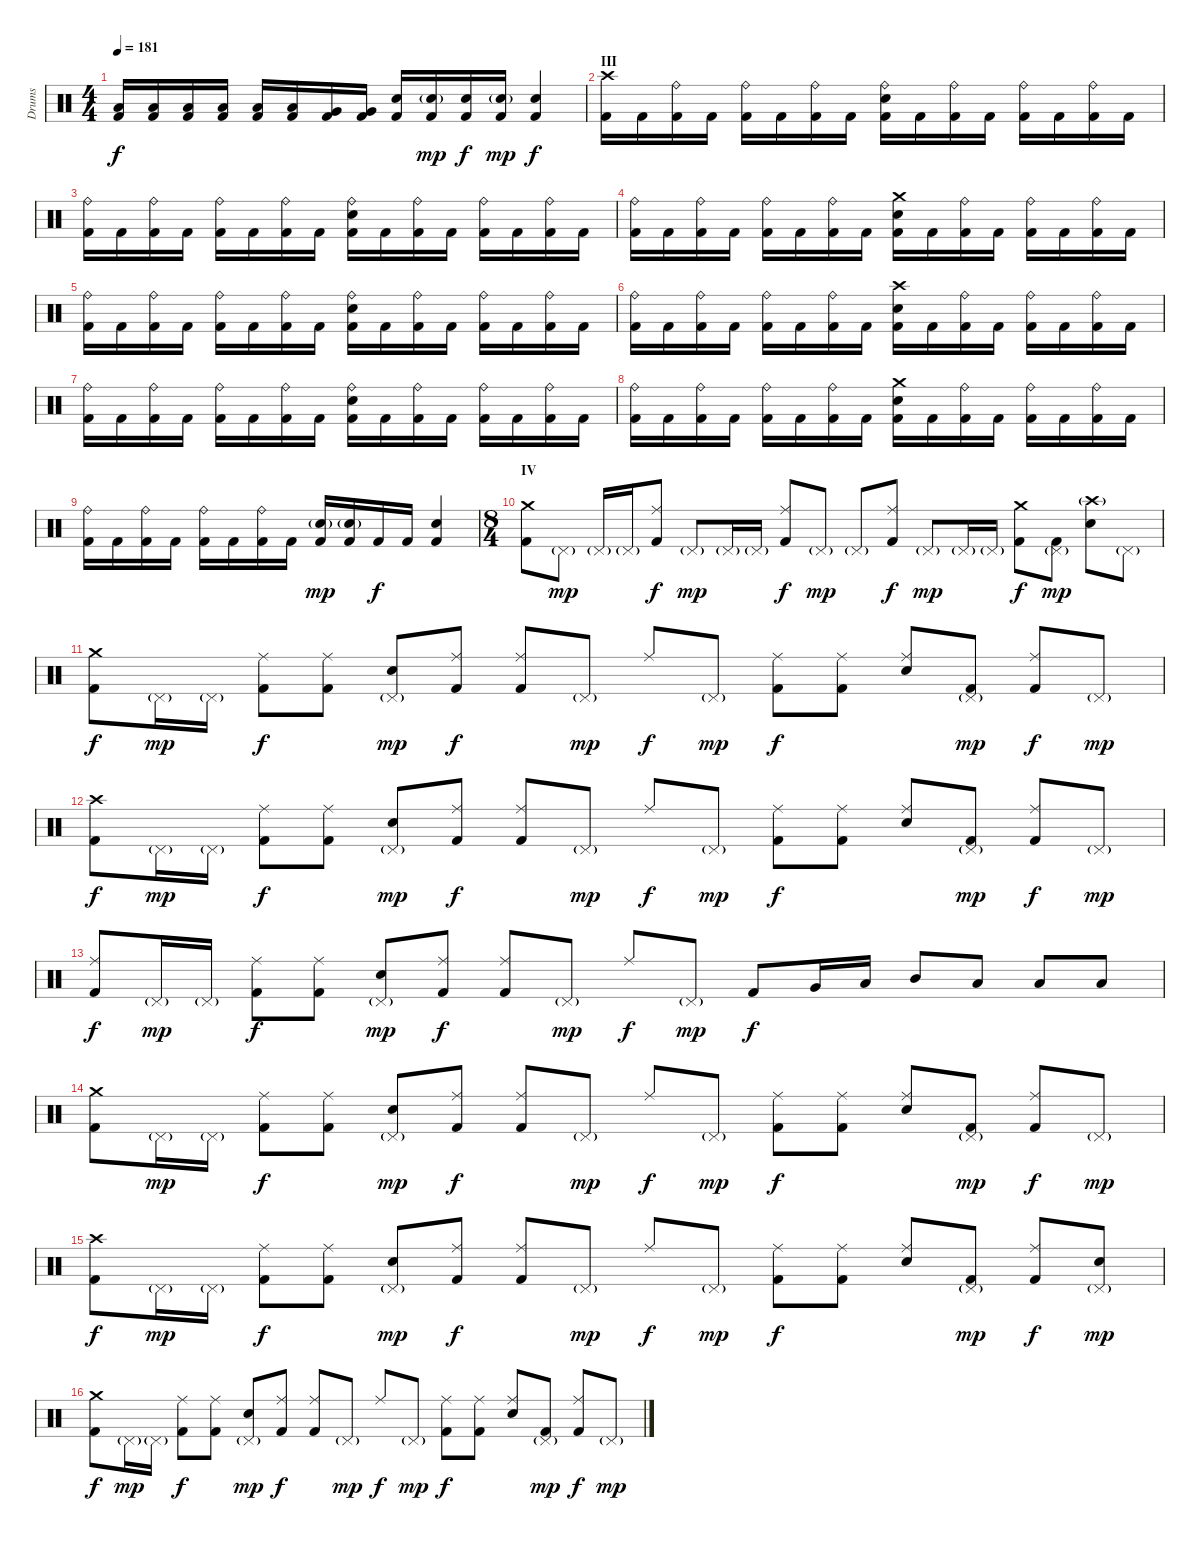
\track ("Drums" "Drums") {instrument percussion}
\staff {score}
\articulation defaults
\ts (4 4)
\tempo 181
\clef neutral
\ks c
("Low Tom (hit)" "Kick (hit) 2").16{dy f} ("Low Tom (hit)" "Kick (hit) 2").16 ("Low Tom (hit)" "Kick (hit) 2").16 ("Low Tom (hit)" "Kick (hit) 2").16 ("Low Tom (hit)" "Kick (hit) 2").16 ("Low Tom (hit)" "Kick (hit) 2").16 ("Very Low Tom (hit)" "Kick (hit) 2").16 ("Very Low Tom (hit)" "Kick (hit) 2").16 ("Electric Snare (hit)" "Kick (hit) 2").16 ("Electric Snare (hit)"{g} "Kick (hit) 2").16{dy mp} ("Electric Snare (hit)" "Kick (hit) 2").16{dy f} ("Electric Snare (hit)"{g} "Kick (hit) 2").16{dy mp} ("Electric Snare (hit)" "Kick (hit) 2").4{dy f} |
\section ("" "III")
("Crash high (hit)" "Kick (hit) 2").16 "Kick (hit) 2".16 ("Ride (bell)" "Kick (hit) 2").16 "Kick (hit) 2".16 ("Ride (bell)" "Kick (hit) 2").16 "Kick (hit) 2".16 ("Ride (bell)" "Kick (hit) 2").16 "Kick (hit) 2".16 ("Ride (bell)" "Electric Snare (hit)" "Kick (hit) 2").16 "Kick (hit) 2".16 ("Ride (bell)" "Kick (hit) 2").16 "Kick (hit) 2".16 ("Ride (bell)" "Kick (hit) 2").16 "Kick (hit) 2".16 ("Ride (bell)" "Kick (hit) 2").16 "Kick (hit) 2".16 |
("Ride (bell)" "Kick (hit) 2").16 "Kick (hit) 2".16 ("Ride (bell)" "Kick (hit) 2").16 "Kick (hit) 2".16 ("Ride (bell)" "Kick (hit) 2").16 "Kick (hit) 2".16 ("Ride (bell)" "Kick (hit) 2").16 "Kick (hit) 2".16 ("Ride (bell)" "Electric Snare (hit)" "Kick (hit) 2").16 "Kick (hit) 2".16 ("Ride (bell)" "Kick (hit) 2").16 "Kick (hit) 2".16 ("Ride (bell)" "Kick (hit) 2").16 "Kick (hit) 2".16 ("Ride (bell)" "Kick (hit) 2").16 "Kick (hit) 2".16 |
("Ride (bell)" "Kick (hit) 2").16 "Kick (hit) 2".16 ("Ride (bell)" "Kick (hit) 2").16 "Kick (hit) 2".16 ("Ride (bell)" "Kick (hit) 2").16 "Kick (hit) 2".16 ("Ride (bell)" "Kick (hit) 2").16 "Kick (hit) 2".16 ("Crash medium (hit)" "Electric Snare (hit)" "Kick (hit) 2").16 "Kick (hit) 2".16 ("Ride (bell)" "Kick (hit) 2").16 "Kick (hit) 2".16 ("Ride (bell)" "Kick (hit) 2").16 "Kick (hit) 2".16 ("Ride (bell)" "Kick (hit) 2").16 "Kick (hit) 2".16 |
("Ride (bell)" "Kick (hit) 2").16 "Kick (hit) 2".16 ("Ride (bell)" "Kick (hit) 2").16 "Kick (hit) 2".16 ("Ride (bell)" "Kick (hit) 2").16 "Kick (hit) 2".16 ("Ride (bell)" "Kick (hit) 2").16 "Kick (hit) 2".16 ("Ride (bell)" "Electric Snare (hit)" "Kick (hit) 2").16 "Kick (hit) 2".16 ("Ride (bell)" "Kick (hit) 2").16 "Kick (hit) 2".16 ("Ride (bell)" "Kick (hit) 2").16 "Kick (hit) 2".16 ("Ride (bell)" "Kick (hit) 2").16 "Kick (hit) 2".16 |
("Ride (bell)" "Kick (hit) 2").16 "Kick (hit) 2".16 ("Ride (bell)" "Kick (hit) 2").16 "Kick (hit) 2".16 ("Ride (bell)" "Kick (hit) 2").16 "Kick (hit) 2".16 ("Ride (bell)" "Kick (hit) 2").16 "Kick (hit) 2".16 ("Crash high (hit)" "Electric Snare (hit)" "Kick (hit) 2").16 "Kick (hit) 2".16 ("Ride (bell)" "Kick (hit) 2").16 "Kick (hit) 2".16 ("Ride (bell)" "Kick (hit) 2").16 "Kick (hit) 2".16 ("Ride (bell)" "Kick (hit) 2").16 "Kick (hit) 2".16 |
("Ride (bell)" "Kick (hit) 2").16 "Kick (hit) 2".16 ("Ride (bell)" "Kick (hit) 2").16 "Kick (hit) 2".16 ("Ride (bell)" "Kick (hit) 2").16 "Kick (hit) 2".16 ("Ride (bell)" "Kick (hit) 2").16 "Kick (hit) 2".16 ("Ride (bell)" "Electric Snare (hit)" "Kick (hit) 2").16 "Kick (hit) 2".16 ("Ride (bell)" "Kick (hit) 2").16 "Kick (hit) 2".16 ("Ride (bell)" "Kick (hit) 2").16 "Kick (hit) 2".16 ("Ride (bell)" "Kick (hit) 2").16 "Kick (hit) 2".16 |
("Ride (bell)" "Kick (hit) 2").16 "Kick (hit) 2".16 ("Ride (bell)" "Kick (hit) 2").16 "Kick (hit) 2".16 ("Ride (bell)" "Kick (hit) 2").16 "Kick (hit) 2".16 ("Ride (bell)" "Kick (hit) 2").16 "Kick (hit) 2".16 ("Crash medium (hit)" "Electric Snare (hit)" "Kick (hit) 2").16 "Kick (hit) 2".16 ("Ride (bell)" "Kick (hit) 2").16 "Kick (hit) 2".16 ("Ride (bell)" "Kick (hit) 2").16 "Kick (hit) 2".16 ("Ride (bell)" "Kick (hit) 2").16 "Kick (hit) 2".16 |
("Ride (bell)" "Kick (hit) 2").16 "Kick (hit) 2".16 ("Ride (bell)" "Kick (hit) 2").16 "Kick (hit) 2".16 ("Ride (bell)" "Kick (hit) 2").16 "Kick (hit) 2".16 ("Ride (bell)" "Kick (hit) 2").16 "Kick (hit) 2".16 ("Electric Snare (hit)"{g} "Kick (hit) 2").16{dy mp} ("Electric Snare (hit)"{g} "Kick (hit) 2").16 "Kick (hit) 2".16{dy f} "Kick (hit) 2".16 ("Electric Snare (hit)" "Kick (hit) 2").4 |
\ts (8 4)
\section ("" "IV")
("Crash medium (hit)" "Kick (hit) 2").8 "Pedal Hi-Hat (hit)"{g}.8{dy mp} "Pedal Hi-Hat (hit)"{g}.16 "Pedal Hi-Hat (hit)"{g}.16 ("Ride (middle)" "Kick (hit) 2").8{dy f} "Pedal Hi-Hat (hit)"{g}.8{dy mp} "Pedal Hi-Hat (hit)"{g}.16 "Pedal Hi-Hat (hit)"{g}.16 ("Ride (middle)" "Kick (hit) 2").8{dy f} "Pedal Hi-Hat (hit)"{g}.8{dy mp} "Pedal Hi-Hat (hit)"{g}.8 ("Ride (middle)" "Kick (hit) 2").8{dy f} "Pedal Hi-Hat (hit)"{g}.8{dy mp} "Pedal Hi-Hat (hit)"{g}.16 "Pedal Hi-Hat (hit)"{g}.16 ("Crash medium (hit)" "Kick (hit) 2").8{dy f} ("Pedal Hi-Hat (hit)"{g} "Kick (hit) 2").8{dy mp} ("Crash high (hit)"{g} "Electric Snare (hit)").8 "Pedal Hi-Hat (hit)"{g}.8 |
("Crash medium (hit)" "Kick (hit) 2").8{dy f} "Pedal Hi-Hat (hit)"{g}.16{dy mp} "Pedal Hi-Hat (hit)"{g}.16 ("Ride (middle)" "Kick (hit) 2").8{dy f} ("Ride (middle)" "Kick (hit) 2").8 ("Pedal Hi-Hat (hit)"{g} "Electric Snare (hit)").8{dy mp} ("Ride (middle)" "Kick (hit) 2").8{dy f} ("Ride (middle)" "Kick (hit) 2").8 "Pedal Hi-Hat (hit)"{g}.8{dy mp} "Ride (middle)".8{dy f} "Pedal Hi-Hat (hit)"{g}.8{dy mp} ("Ride (middle)" "Kick (hit) 2").8{dy f} ("Ride (middle)" "Kick (hit) 2").8 ("Ride (middle)" "Electric Snare (hit)").8 ("Pedal Hi-Hat (hit)"{g} "Kick (hit) 2").8{dy mp} ("Ride (middle)" "Kick (hit) 2").8{dy f} "Pedal Hi-Hat (hit)"{g}.8{dy mp} |
("Crash high (hit)" "Kick (hit) 2").8{dy f} "Pedal Hi-Hat (hit)"{g}.16{dy mp} "Pedal Hi-Hat (hit)"{g}.16 ("Ride (middle)" "Kick (hit) 2").8{dy f} ("Ride (middle)" "Kick (hit) 2").8 ("Pedal Hi-Hat (hit)"{g} "Electric Snare (hit)").8{dy mp} ("Ride (middle)" "Kick (hit) 2").8{dy f} ("Ride (middle)" "Kick (hit) 2").8 "Pedal Hi-Hat (hit)"{g}.8{dy mp} "Ride (middle)".8{dy f} "Pedal Hi-Hat (hit)"{g}.8{dy mp} ("Ride (middle)" "Kick (hit) 2").8{dy f} ("Ride (middle)" "Kick (hit) 2").8 ("Ride (middle)" "Electric Snare (hit)").8 ("Pedal Hi-Hat (hit)"{g} "Kick (hit) 2").8{dy mp} ("Ride (middle)" "Kick (hit) 2").8{dy f} "Pedal Hi-Hat (hit)"{g}.8{dy mp} |
("Ride (middle)" "Kick (hit) 2").8{dy f} "Pedal Hi-Hat (hit)"{g}.16{dy mp} "Pedal Hi-Hat (hit)"{g}.16 ("Ride (middle)" "Kick (hit) 2").8{dy f} ("Ride (middle)" "Kick (hit) 2").8 ("Pedal Hi-Hat (hit)"{g} "Electric Snare (hit)").8{dy mp} ("Ride (middle)" "Kick (hit) 2").8{dy f} ("Ride (middle)" "Kick (hit) 2").8 "Pedal Hi-Hat (hit)"{g}.8{dy mp} "Ride (middle)".8{dy f} "Pedal Hi-Hat (hit)"{g}.8{dy mp} "Kick (hit) 2".8{dy f} "Very Low Tom (hit)".16 "Low Tom (hit)".16 "Mid Tom (hit)".8 "Low Tom (hit)".8 "Low Tom (hit)".8 "Low Tom (hit)".8 |
("Crash medium (hit)" "Kick (hit) 2").8 "Pedal Hi-Hat (hit)"{g}.16{dy mp} "Pedal Hi-Hat (hit)"{g}.16 ("Ride (middle)" "Kick (hit) 2").8{dy f} ("Ride (middle)" "Kick (hit) 2").8 ("Pedal Hi-Hat (hit)"{g} "Electric Snare (hit)").8{dy mp} ("Ride (middle)" "Kick (hit) 2").8{dy f} ("Ride (middle)" "Kick (hit) 2").8 "Pedal Hi-Hat (hit)"{g}.8{dy mp} "Ride (middle)".8{dy f} "Pedal Hi-Hat (hit)"{g}.8{dy mp} ("Ride (middle)" "Kick (hit) 2").8{dy f} ("Ride (middle)" "Kick (hit) 2").8 ("Ride (middle)" "Electric Snare (hit)").8 ("Pedal Hi-Hat (hit)"{g} "Kick (hit) 2").8{dy mp} ("Ride (middle)" "Kick (hit) 2").8{dy f} "Pedal Hi-Hat (hit)"{g}.8{dy mp} |
("Crash high (hit)" "Kick (hit) 2").8{dy f} "Pedal Hi-Hat (hit)"{g}.16{dy mp} "Pedal Hi-Hat (hit)"{g}.16 ("Ride (middle)" "Kick (hit) 2").8{dy f} ("Ride (middle)" "Kick (hit) 2").8 ("Pedal Hi-Hat (hit)"{g} "Electric Snare (hit)").8{dy mp} ("Ride (middle)" "Kick (hit) 2").8{dy f} ("Ride (middle)" "Kick (hit) 2").8 "Pedal Hi-Hat (hit)"{g}.8{dy mp} "Ride (middle)".8{dy f} "Pedal Hi-Hat (hit)"{g}.8{dy mp} ("Ride (middle)" "Kick (hit) 2").8{dy f} ("Ride (middle)" "Kick (hit) 2").8 ("Ride (middle)" "Electric Snare (hit)").8 ("Pedal Hi-Hat (hit)"{g} "Kick (hit) 2").8{dy mp} ("Ride (middle)" "Kick (hit) 2").8{dy f} ("Pedal Hi-Hat (hit)"{g} "Electric Snare (hit)").8{dy mp} |
("Crash medium (hit)" "Kick (hit) 2").8{dy f} "Pedal Hi-Hat (hit)"{g}.16{dy mp} "Pedal Hi-Hat (hit)"{g}.16 ("Ride (middle)" "Kick (hit) 2").8{dy f} ("Ride (middle)" "Kick (hit) 2").8 ("Pedal Hi-Hat (hit)"{g} "Electric Snare (hit)").8{dy mp} ("Ride (middle)" "Kick (hit) 2").8{dy f} ("Ride (middle)" "Kick (hit) 2").8 "Pedal Hi-Hat (hit)"{g}.8{dy mp} "Ride (middle)".8{dy f} "Pedal Hi-Hat (hit)"{g}.8{dy mp} ("Ride (middle)" "Kick (hit) 2").8{dy f} ("Ride (middle)" "Kick (hit) 2").8 ("Ride (middle)" "Electric Snare (hit)").8 ("Pedal Hi-Hat (hit)"{g} "Kick (hit) 2").8{dy mp} ("Ride (middle)" "Kick (hit) 2").8{dy f} "Pedal Hi-Hat (hit)"{g}.8{dy mp}
